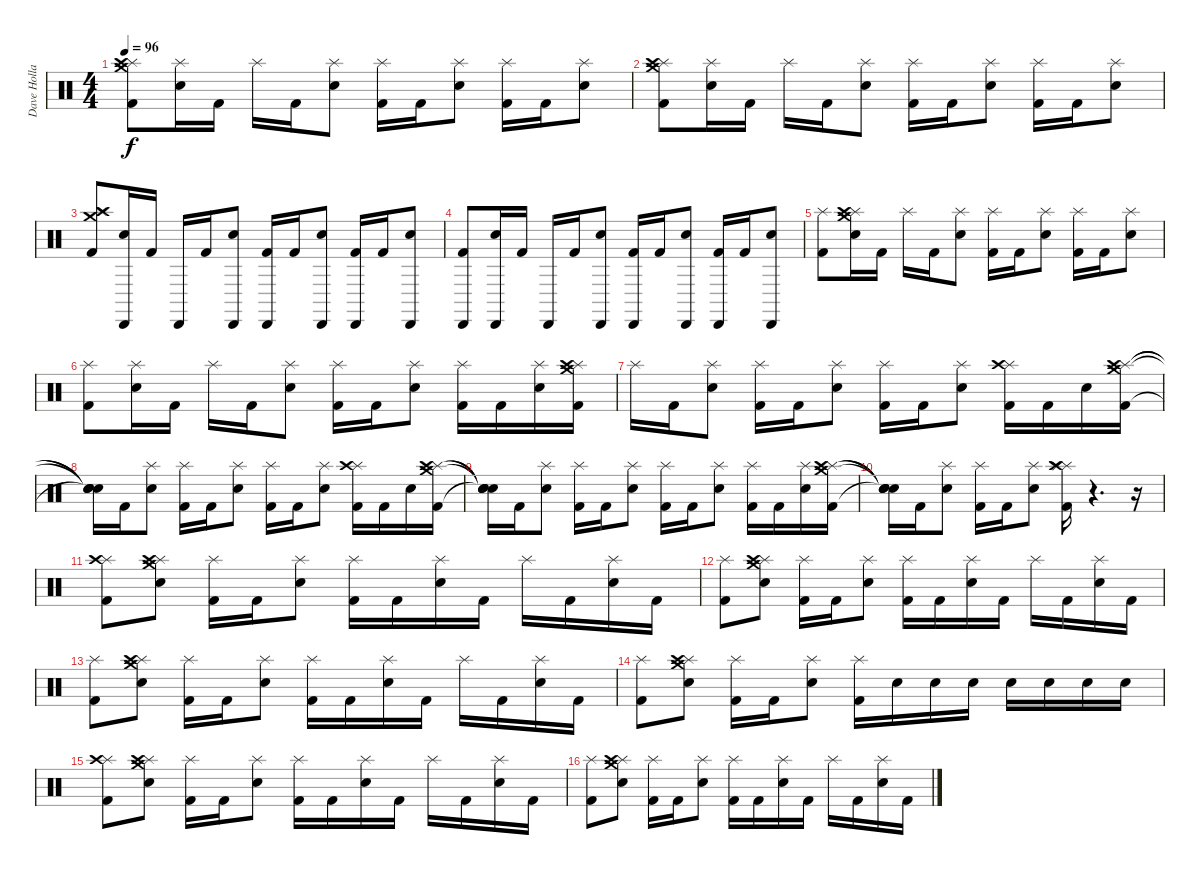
\track ("Dave Holland" "Dave Holla") {instrument percussion}
\staff {score}
\articulation defaults
\ts (4 4)
\tempo 96
\clef neutral
\ks c
("Crash medium (hit)" "Splash (hit)" "Crash high (hit)" "Kick (hit) 2").8{dy f} ("Splash (hit)" "Snare (hit) 2").16 "Kick (hit) 2".16 "Splash (hit)".16 "Kick (hit) 2".16 ("Splash (hit)" "Snare (hit) 2").8 ("Splash (hit)" "Kick (hit) 2").16 "Kick (hit) 2".16 ("Splash (hit)" "Snare (hit) 2").8 ("Splash (hit)" "Kick (hit) 2").16 "Kick (hit) 2".16 ("Splash (hit)" "Snare (hit) 2").8 |
("Crash medium (hit)" "Splash (hit)" "Crash high (hit)" "Kick (hit) 2").8 ("Splash (hit)" "Snare (hit) 2").16 "Kick (hit) 2".16 "Splash (hit)".16 "Kick (hit) 2".16 ("Splash (hit)" "Snare (hit) 2").8 ("Splash (hit)" "Kick (hit) 2").16 "Kick (hit) 2".16 ("Splash (hit)" "Snare (hit) 2").8 ("Splash (hit)" "Kick (hit) 2").16 "Kick (hit) 2".16 ("Splash (hit)" "Snare (hit) 2").8 |
("Crash medium (hit)" "Splash (hit)" "Crash high (hit)" "Kick (hit) 2").8 ("Cabasa (hit)" "Snare (hit) 2").16 "Kick (hit) 2".16 "Cabasa (hit)".16 "Kick (hit) 2".16 ("Cabasa (hit)" "Snare (hit) 2").8 ("Cabasa (hit)" "Kick (hit) 2").16 "Kick (hit) 2".16 ("Cabasa (hit)" "Snare (hit) 2").8 ("Cabasa (hit)" "Kick (hit) 2").16 "Kick (hit) 2".16 ("Cabasa (hit)" "Snare (hit) 2").8 |
("Cabasa (hit)" "Kick (hit) 2").8 ("Cabasa (hit)" "Snare (hit) 2").16 "Kick (hit) 2".16 "Cabasa (hit)".16 "Kick (hit) 2".16 ("Cabasa (hit)" "Snare (hit) 2").8 ("Cabasa (hit)" "Kick (hit) 2").16 "Kick (hit) 2".16 ("Cabasa (hit)" "Snare (hit) 2").8 ("Cabasa (hit)" "Kick (hit) 2").16 "Kick (hit) 2".16 ("Cabasa (hit)" "Snare (hit) 2").8 |
("Splash (hit)" "Kick (hit) 2").8 ("Crash medium (hit)" "Splash (hit)" "Crash high (hit)" "Snare (hit) 2").16 "Kick (hit) 2".16 "Splash (hit)".16 "Kick (hit) 2".16 ("Splash (hit)" "Snare (hit) 2").8 ("Splash (hit)" "Kick (hit) 2").16 "Kick (hit) 2".16 ("Splash (hit)" "Snare (hit) 2").8 ("Splash (hit)" "Kick (hit) 2").16 "Kick (hit) 2".16 ("Splash (hit)" "Snare (hit) 2").8 |
("Splash (hit)" "Kick (hit) 2").8 ("Splash (hit)" "Snare (hit) 2").16 "Kick (hit) 2".16 "Splash (hit)".16 "Kick (hit) 2".16 ("Splash (hit)" "Snare (hit) 2").8 ("Splash (hit)" "Kick (hit) 2").16 "Kick (hit) 2".16 ("Splash (hit)" "Snare (hit) 2").8 ("Splash (hit)" "Kick (hit) 2").16 "Kick (hit) 2".16 ("Splash (hit)" "Snare (hit) 2").16 ("Crash medium (hit)" "Splash (hit)" "Crash high (hit)" "Kick (hit) 2").16 |
"Splash (hit)".16 "Kick (hit) 2".16 ("Splash (hit)" "Snare (hit) 2").8 ("Splash (hit)" "Kick (hit) 2").16 "Kick (hit) 2".16 ("Splash (hit)" "Snare (hit) 2").8 ("Splash (hit)" "Kick (hit) 2").16 "Kick (hit) 2".16 ("Splash (hit)" "Snare (hit) 2").8 ("Splash (hit)" "Crash high (hit)" "Kick (hit) 2").16 "Kick (hit) 2".16 "Snare (hit) 2".16 ("Crash medium (hit)" "Splash (hit)" "Crash high (hit)" "Kick (hit) 2").16 |
("Snare (hit)"{t} "Snare (hit)"{t} "Snare (hit)"{t} "Snare (hit)"{t}).16 "Kick (hit) 2".16 ("Splash (hit)" "Snare (hit) 2").8 ("Splash (hit)" "Kick (hit) 2").16 "Kick (hit) 2".16 ("Splash (hit)" "Snare (hit) 2").8 ("Splash (hit)" "Kick (hit) 2").16 "Kick (hit) 2".16 ("Splash (hit)" "Snare (hit) 2").8 ("Splash (hit)" "Crash high (hit)" "Kick (hit) 2").16 "Kick (hit) 2".16 "Snare (hit) 2".16 ("Crash medium (hit)" "Splash (hit)" "Crash high (hit)" "Kick (hit) 2").16 |
("Snare (hit)"{t} "Snare (hit)"{t} "Snare (hit)"{t} "Snare (hit)"{t}).16 "Kick (hit) 2".16 ("Splash (hit)" "Snare (hit) 2").8 ("Splash (hit)" "Kick (hit) 2").16 "Kick (hit) 2".16 ("Splash (hit)" "Snare (hit) 2").8 ("Splash (hit)" "Kick (hit) 2").16 "Kick (hit) 2".16 ("Splash (hit)" "Snare (hit) 2").8 ("Splash (hit)" "Kick (hit) 2").16 "Kick (hit) 2".16 ("Splash (hit)" "Snare (hit) 2").16 ("Crash medium (hit)" "Splash (hit)" "Crash high (hit)" "Kick (hit) 2").16 |
("Snare (hit)"{t} "Snare (hit)"{t} "Snare (hit)"{t} "Snare (hit)"{t}).16 "Kick (hit) 2".16 ("Splash (hit)" "Snare (hit) 2").8 ("Splash (hit)" "Kick (hit) 2").16 "Kick (hit) 2".16 ("Splash (hit)" "Snare (hit) 2").8 ("Splash (hit)" "Splash (hit)" "Crash high (hit)" "Kick (hit) 2").16 r.4{d} r.16 |
("Splash (hit)" "Crash high (hit)" "Kick (hit) 2").8 ("Crash medium (hit)" "Splash (hit)" "Crash high (hit)" "Snare (hit) 2").8 ("Splash (hit)" "Kick (hit) 2").16 "Kick (hit) 2".16 ("Splash (hit)" "Snare (hit) 2").8 ("Splash (hit)" "Kick (hit) 2").16 "Kick (hit) 2".16 ("Splash (hit)" "Snare (hit) 2").16 "Kick (hit) 2".16 "Splash (hit)".16 "Kick (hit) 2".16 ("Splash (hit)" "Snare (hit) 2").16 "Kick (hit) 2".16 |
("Splash (hit)" "Kick (hit) 2").8 ("Crash medium (hit)" "Splash (hit)" "Crash high (hit)" "Snare (hit) 2").8 ("Splash (hit)" "Kick (hit) 2").16 "Kick (hit) 2".16 ("Splash (hit)" "Snare (hit) 2").8 ("Splash (hit)" "Kick (hit) 2").16 "Kick (hit) 2".16 ("Splash (hit)" "Snare (hit) 2").16 "Kick (hit) 2".16 "Splash (hit)".16 "Kick (hit) 2".16 ("Splash (hit)" "Snare (hit) 2").16 "Kick (hit) 2".16 |
("Splash (hit)" "Kick (hit) 2").8 ("Crash medium (hit)" "Splash (hit)" "Crash high (hit)" "Snare (hit) 2").8 ("Splash (hit)" "Kick (hit) 2").16 "Kick (hit) 2".16 ("Splash (hit)" "Snare (hit) 2").8 ("Splash (hit)" "Kick (hit) 2").16 "Kick (hit) 2".16 ("Splash (hit)" "Snare (hit) 2").16 "Kick (hit) 2".16 "Splash (hit)".16 "Kick (hit) 2".16 ("Splash (hit)" "Snare (hit) 2").16 "Kick (hit) 2".16 |
("Splash (hit)" "Kick (hit) 2").8 ("Crash medium (hit)" "Splash (hit)" "Crash high (hit)" "Snare (hit) 2").8 ("Splash (hit)" "Kick (hit) 2").16 "Kick (hit) 2".16 ("Splash (hit)" "Snare (hit) 2").8 ("Splash (hit)" "Kick (hit) 2").16 "Snare (hit) 2".16 "Snare (hit) 2".16 "Snare (hit) 2".16 "Snare (hit) 2".16 "Snare (hit) 2".16 "Snare (hit) 2".16 "Snare (hit) 2".16 |
("Splash (hit)" "Crash high (hit)" "Kick (hit) 2").8 ("Crash medium (hit)" "Splash (hit)" "Crash high (hit)" "Snare (hit) 2").8 ("Splash (hit)" "Kick (hit) 2").16 "Kick (hit) 2".16 ("Splash (hit)" "Snare (hit) 2").8 ("Splash (hit)" "Kick (hit) 2").16 "Kick (hit) 2".16 ("Splash (hit)" "Snare (hit) 2").16 "Kick (hit) 2".16 "Splash (hit)".16 "Kick (hit) 2".16 ("Splash (hit)" "Snare (hit) 2").16 "Kick (hit) 2".16 |
("Splash (hit)" "Kick (hit) 2").8 ("Crash medium (hit)" "Splash (hit)" "Crash high (hit)" "Snare (hit) 2").8 ("Splash (hit)" "Kick (hit) 2").16 "Kick (hit) 2".16 ("Splash (hit)" "Snare (hit) 2").8 ("Splash (hit)" "Kick (hit) 2").16 "Kick (hit) 2".16 ("Splash (hit)" "Snare (hit) 2").16 "Kick (hit) 2".16 "Splash (hit)".16 "Kick (hit) 2".16 ("Splash (hit)" "Snare (hit) 2").16 "Kick (hit) 2".16
